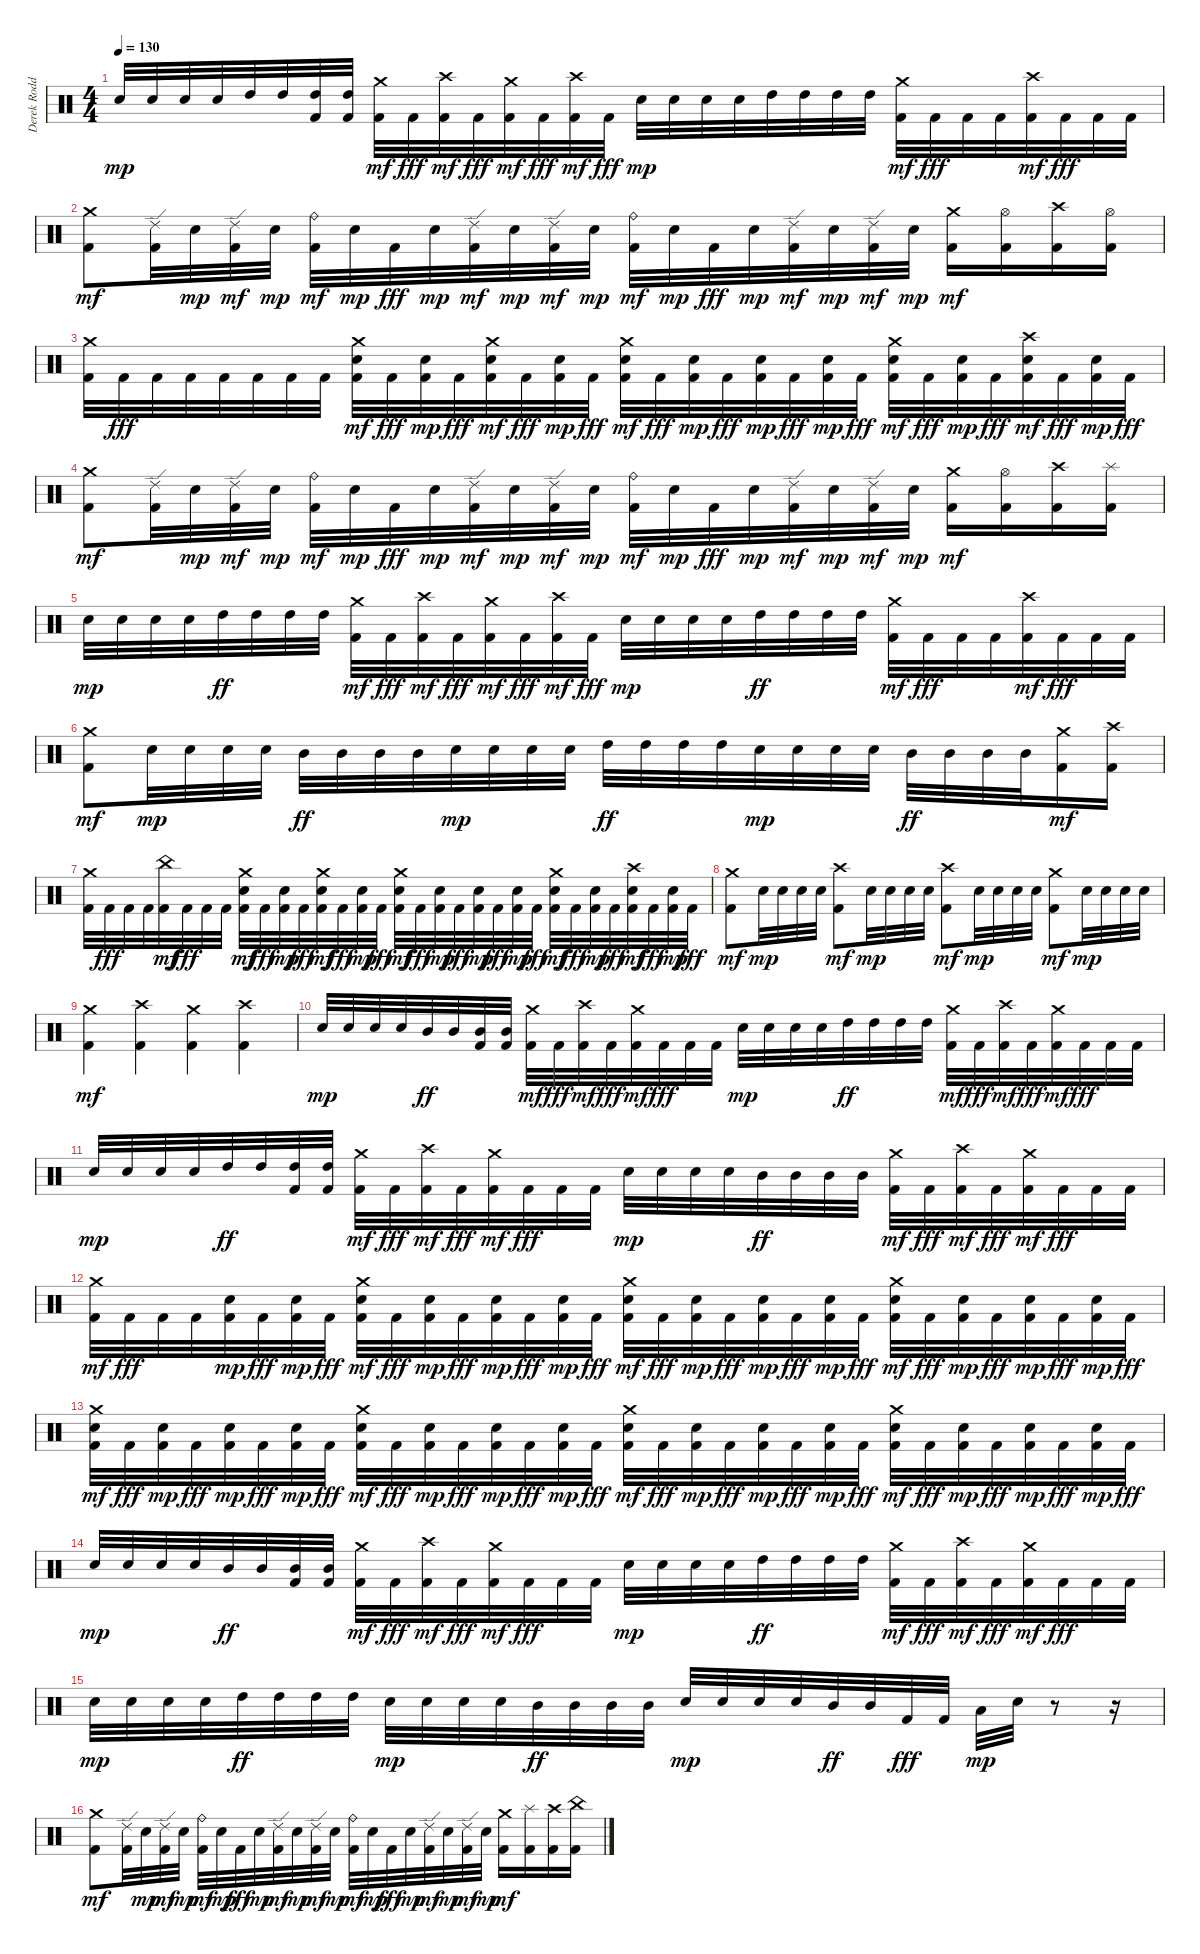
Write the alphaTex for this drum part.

\track ("Derek Roddy" "Derek Rodd") {instrument percussion}
\staff {score}
\articulation defaults
\ts (4 4)
\tempo 130
\clef neutral
\ks c "Electric Snare (hit)".32{dy mp} "Electric Snare (hit)".32 "Electric Snare (hit)".32 "Electric Snare (hit)".32 "High Tom (hit)".32 "High Tom (hit)".32
("Kick (hit) 2" "High Tom (hit)").32 ("Kick (hit) 2" "High Tom (hit)").32 ("Kick (hit) 2" "Crash medium (hit)").32{dy mf} "Kick (hit) 2".32{dy fff} ("Kick (hit) 2" "Crash high (hit)").32{dy mf} "Kick (hit) 2".32{dy fff} ("Kick (hit) 2" "Crash medium (hit)").32{dy mf} "Kick (hit) 2".32{dy fff} ("Kick (hit) 2" "Crash high (hit)").32{dy mf} "Kick (hit) 2".32{dy fff} "Electric Snare (hit)".32{dy mp} "Electric Snare (hit)".32 "Electric Snare (hit)".32 "Electric Snare (hit)".32 "High Tom (hit)".32 "High Tom (hit)".32 "High Tom (hit)".32 "High Tom (hit)".32 ("Kick (hit) 2" "Crash medium (hit)").32{dy mf} "Kick (hit) 2".32{dy fff} "Kick (hit) 2".32 "Kick (hit) 2".32 ("Kick (hit) 2" "Crash high (hit)").32{dy mf} "Kick (hit) 2".32{dy fff} "Kick (hit) 2".32 "Kick (hit) 2".32 |
("Kick (hit) 2" "Crash medium (hit)").8{dy mf} ("Kick (hit) 2" "Ride (edge) 2").32 "Electric Snare (hit)".32{dy mp} ("Kick (hit) 2" "Ride (edge) 2").32{dy mf} "Electric Snare (hit)".32{dy mp} ("Kick (hit) 2" "Ride (bell)").32{dy mf} "Electric Snare (hit)".32{dy mp} "Kick (hit) 2".32{dy fff} "Electric Snare (hit)".32{dy mp} ("Kick (hit) 2" "Ride (edge) 2").32{dy mf} "Electric Snare (hit)".32{dy mp} ("Kick (hit) 2" "Ride (edge) 2").32{dy mf} "Electric Snare (hit)".32{dy mp} ("Kick (hit) 2" "Ride (bell)").32{dy mf} "Electric Snare (hit)".32{dy mp} "Kick (hit) 2".32{dy fff} "Electric Snare (hit)".32{dy mp} ("Kick (hit) 2" "Ride (edge) 2").32{dy mf} "Electric Snare (hit)".32{dy mp} ("Kick (hit) 2" "Ride (edge) 2").32{dy mf} "Electric Snare (hit)".32{dy mp} ("Kick (hit) 2" "Crash medium (hit)").16{dy mf} ("Kick (hit) 2" "Hi-Hat (open)").16 ("Kick (hit) 2" "Crash high (hit)").16 ("Kick (hit) 2" "Hi-Hat (open)").16 |
("Kick (hit) 2" "Crash medium (hit)").32 "Kick (hit) 2".32{dy fff} "Kick (hit) 2".32 "Kick (hit) 2".32 "Kick (hit) 2".32 "Kick (hit) 2".32 "Kick (hit) 2".32 "Kick (hit) 2".32 ("Kick (hit) 2" "Electric Snare (hit)" "Crash medium (hit)").32{dy mf} "Kick (hit) 2".32{dy fff} ("Kick (hit) 2" "Electric Snare (hit)").32{dy mp} "Kick (hit) 2".32{dy fff} ("Kick (hit) 2" "Electric Snare (hit)" "Crash medium (hit)").32{dy mf} "Kick (hit) 2".32{dy fff} ("Kick (hit) 2" "Electric Snare (hit)").32{dy mp} "Kick (hit) 2".32{dy fff} ("Kick (hit) 2" "Electric Snare (hit)" "Crash medium (hit)").32{dy mf} "Kick (hit) 2".32{dy fff} ("Kick (hit) 2" "Electric Snare (hit)").32{dy mp} "Kick (hit) 2".32{dy fff} ("Kick (hit) 2" "Electric Snare (hit)").32{dy mp} "Kick (hit) 2".32{dy fff} ("Kick (hit) 2" "Electric Snare (hit)").32{dy mp} "Kick (hit) 2".32{dy fff} ("Kick (hit) 2" "Electric Snare (hit)" "Crash medium (hit)").32{dy mf} "Kick (hit) 2".32{dy fff} ("Kick (hit) 2" "Electric Snare (hit)").32{dy mp} "Kick (hit) 2".32{dy fff} ("Kick (hit) 2" "Electric Snare (hit)" "Crash high (hit)").32{dy mf} "Kick (hit) 2".32{dy fff} ("Kick (hit) 2" "Electric Snare (hit)").32{dy mp} "Kick (hit) 2".32{dy fff} |
("Kick (hit) 2" "Crash medium (hit)").8{dy mf} ("Kick (hit) 2" "Ride (edge) 2").32 "Electric Snare (hit)".32{dy mp} ("Kick (hit) 2" "Ride (edge) 2").32{dy mf} "Electric Snare (hit)".32{dy mp} ("Kick (hit) 2" "Ride (bell)").32{dy mf} "Electric Snare (hit)".32{dy mp} "Kick (hit) 2".32{dy fff} "Electric Snare (hit)".32{dy mp} ("Kick (hit) 2" "Ride (edge) 2").32{dy mf} "Electric Snare (hit)".32{dy mp} ("Kick (hit) 2" "Ride (edge) 2").32{dy mf} "Electric Snare (hit)".32{dy mp} ("Kick (hit) 2" "Ride (bell)").32{dy mf} "Electric Snare (hit)".32{dy mp} "Kick (hit) 2".32{dy fff} "Electric Snare (hit)".32{dy mp} ("Kick (hit) 2" "Ride (edge) 2").32{dy mf} "Electric Snare (hit)".32{dy mp} ("Kick (hit) 2" "Ride (edge) 2").32{dy mf} "Electric Snare (hit)".32{dy mp} ("Kick (hit) 2" "Crash medium (hit)").16{dy mf} ("Kick (hit) 2" "Hi-Hat (open)").16 ("Kick (hit) 2" "Crash high (hit)").16 ("Kick (hit) 2" "Splash (hit)").16 |
"Electric Snare (hit)".32{dy mp} "Electric Snare (hit)".32 "Electric Snare (hit)".32 "Electric Snare (hit)".32 "High Tom (hit)".32{dy ff} "High Tom (hit)".32 "High Tom (hit)".32 "High Tom (hit)".32 ("Kick (hit) 2" "Crash medium (hit)").32{dy mf} "Kick (hit) 2".32{dy fff} ("Kick (hit) 2" "Crash high (hit)").32{dy mf} "Kick (hit) 2".32{dy fff} ("Kick (hit) 2" "Crash medium (hit)").32{dy mf} "Kick (hit) 2".32{dy fff} ("Kick (hit) 2" "Crash high (hit)").32{dy mf} "Kick (hit) 2".32{dy fff} "Electric Snare (hit)".32{dy mp} "Electric Snare (hit)".32 "Electric Snare (hit)".32 "Electric Snare (hit)".32 "High Tom (hit)".32{dy ff} "High Tom (hit)".32 "High Tom (hit)".32 "High Tom (hit)".32 ("Kick (hit) 2" "Crash medium (hit)").32{dy mf} "Kick (hit) 2".32{dy fff} "Kick (hit) 2".32 "Kick (hit) 2".32 ("Kick (hit) 2" "Crash high (hit)").32{dy mf} "Kick (hit) 2".32{dy fff} "Kick (hit) 2".32 "Kick (hit) 2".32 |
("Kick (hit) 2" "Crash medium (hit)").8{dy mf} "Electric Snare (hit)".32{dy mp} "Electric Snare (hit)".32 "Electric Snare (hit)".32 "Electric Snare (hit)".32 "Mid Tom (hit)".32{dy ff} "Mid Tom (hit)".32 "Mid Tom (hit)".32 "Mid Tom (hit)".32 "Electric Snare (hit)".32{dy mp} "Electric Snare (hit)".32 "Electric Snare (hit)".32 "Electric Snare (hit)".32 "High Tom (hit)".32{dy ff} "High Tom (hit)".32 "High Tom (hit)".32 "High Tom (hit)".32 "Electric Snare (hit)".32{dy mp} "Electric Snare (hit)".32 "Electric Snare (hit)".32 "Electric Snare (hit)".32 "Mid Tom (hit)".32{dy ff} "Mid Tom (hit)".32 "Mid Tom (hit)".32 "Mid Tom (hit)".32 ("Kick (hit) 2" "Crash medium (hit)").16{dy mf} ("Kick (hit) 2" "Crash high (hit)").16 |
("Kick (hit) 2" "Crash medium (hit)").32 "Kick (hit) 2".32{dy fff} "Kick (hit) 2".32 "Kick (hit) 2".32 ("Kick (hit) 2" "China (hit)").32{dy mf} "Kick (hit) 2".32{dy fff} "Kick (hit) 2".32 "Kick (hit) 2".32 ("Kick (hit) 2" "Electric Snare (hit)" "Crash medium (hit)").32{dy mf} "Kick (hit) 2".32{dy fff} ("Kick (hit) 2" "Electric Snare (hit)").32{dy mp} "Kick (hit) 2".32{dy fff} ("Kick (hit) 2" "Electric Snare (hit)" "Crash medium (hit)").32{dy mf} "Kick (hit) 2".32{dy fff} ("Kick (hit) 2" "Electric Snare (hit)").32{dy mp} "Kick (hit) 2".32{dy fff} ("Kick (hit) 2" "Electric Snare (hit)" "Crash medium (hit)").32{dy mf} "Kick (hit) 2".32{dy fff} ("Kick (hit) 2" "Electric Snare (hit)").32{dy mp} "Kick (hit) 2".32{dy fff} ("Kick (hit) 2" "Electric Snare (hit)").32{dy mp} "Kick (hit) 2".32{dy fff} ("Kick (hit) 2" "Electric Snare (hit)").32{dy mp} "Kick (hit) 2".32{dy fff} ("Kick (hit) 2" "Electric Snare (hit)" "Crash medium (hit)").32{dy mf} "Kick (hit) 2".32{dy fff} ("Kick (hit) 2" "Electric Snare (hit)").32{dy mp} "Kick (hit) 2".32{dy fff} ("Kick (hit) 2" "Electric Snare (hit)" "Crash high (hit)").32{dy mf} "Kick (hit) 2".32{dy fff} ("Kick (hit) 2" "Electric Snare (hit)").32{dy mp} "Kick (hit) 2".32{dy fff} |
("Kick (hit) 2" "Crash medium (hit)").8{dy mf} "Electric Snare (hit)".32{dy mp} "Electric Snare (hit)".32 "Electric Snare (hit)".32 "Electric Snare (hit)".32 ("Kick (hit) 2" "Crash high (hit)").8{dy mf} "Electric Snare (hit)".32{dy mp} "Electric Snare (hit)".32 "Electric Snare (hit)".32 "Electric Snare (hit)".32 ("Kick (hit) 2" "Crash high (hit)").8{dy mf} "Electric Snare (hit)".32{dy mp} "Electric Snare (hit)".32 "Electric Snare (hit)".32 "Electric Snare (hit)".32 ("Kick (hit) 2" "Crash medium (hit)").8{dy mf} "Electric Snare (hit)".32{dy mp} "Electric Snare (hit)".32 "Electric Snare (hit)".32 "Electric Snare (hit)".32 |
("Kick (hit) 2" "Crash medium (hit)").4{dy mf} ("Kick (hit) 2" "Crash high (hit)").4 ("Kick (hit) 2" "Crash medium (hit)").4 ("Kick (hit) 2" "Crash high (hit)").4 |
"Electric Snare (hit)".32{dy mp} "Electric Snare (hit)".32 "Electric Snare (hit)".32 "Electric Snare (hit)".32 "Mid Tom (hit)".32{dy ff} "Mid Tom (hit)".32 ("Kick (hit) 2" "Mid Tom (hit)").32 ("Kick (hit) 2" "Mid Tom (hit)").32 ("Kick (hit) 2" "Crash medium (hit)").32{dy mf} "Kick (hit) 2".32{dy fff} ("Kick (hit) 2" "Crash high (hit)").32{dy mf} "Kick (hit) 2".32{dy fff} ("Kick (hit) 2" "Crash medium (hit)").32{dy mf} "Kick (hit) 2".32{dy fff} "Kick (hit) 2".32 "Kick (hit) 2".32 "Electric Snare (hit)".32{dy mp} "Electric Snare (hit)".32 "Electric Snare (hit)".32 "Electric Snare (hit)".32 "High Tom (hit)".32{dy ff} "High Tom (hit)".32 "High Tom (hit)".32 "High Tom (hit)".32 ("Kick (hit) 2" "Crash medium (hit)").32{dy mf} "Kick (hit) 2".32{dy fff} ("Kick (hit) 2" "Crash high (hit)").32{dy mf} "Kick (hit) 2".32{dy fff} ("Kick (hit) 2" "Crash medium (hit)").32{dy mf} "Kick (hit) 2".32{dy fff} "Kick (hit) 2".32 "Kick (hit) 2".32 |
"Electric Snare (hit)".32{dy mp} "Electric Snare (hit)".32 "Electric Snare (hit)".32 "Electric Snare (hit)".32 "High Tom (hit)".32{dy ff} "High Tom (hit)".32 ("Kick (hit) 2" "High Tom (hit)").32 ("Kick (hit) 2" "High Tom (hit)").32 ("Kick (hit) 2" "Crash medium (hit)").32{dy mf} "Kick (hit) 2".32{dy fff} ("Kick (hit) 2" "Crash high (hit)").32{dy mf} "Kick (hit) 2".32{dy fff} ("Kick (hit) 2" "Crash medium (hit)").32{dy mf} "Kick (hit) 2".32{dy fff} "Kick (hit) 2".32 "Kick (hit) 2".32 "Electric Snare (hit)".32{dy mp} "Electric Snare (hit)".32 "Electric Snare (hit)".32 "Electric Snare (hit)".32 "Mid Tom (hit)".32{dy ff} "Mid Tom (hit)".32 "Mid Tom (hit)".32 "Mid Tom (hit)".32 ("Kick (hit) 2" "Crash medium (hit)").32{dy mf} "Kick (hit) 2".32{dy fff} ("Kick (hit) 2" "Crash high (hit)").32{dy mf} "Kick (hit) 2".32{dy fff} ("Kick (hit) 2" "Crash medium (hit)").32{dy mf} "Kick (hit) 2".32{dy fff} "Kick (hit) 2".32 "Kick (hit) 2".32 |
("Kick (hit) 2" "Crash medium (hit)").32{dy mf} "Kick (hit) 2".32{dy fff} "Kick (hit) 2".32 "Kick (hit) 2".32 ("Kick (hit) 2" "Electric Snare (hit)").32{dy mp} "Kick (hit) 2".32{dy fff} ("Kick (hit) 2" "Electric Snare (hit)").32{dy mp} "Kick (hit) 2".32{dy fff} ("Kick (hit) 2" "Electric Snare (hit)" "Crash medium (hit)").32{dy mf} "Kick (hit) 2".32{dy fff} ("Kick (hit) 2" "Electric Snare (hit)").32{dy mp} "Kick (hit) 2".32{dy fff} ("Kick (hit) 2" "Electric Snare (hit)").32{dy mp} "Kick (hit) 2".32{dy fff} ("Kick (hit) 2" "Electric Snare (hit)").32{dy mp} "Kick (hit) 2".32{dy fff} ("Kick (hit) 2" "Electric Snare (hit)" "Crash medium (hit)").32{dy mf} "Kick (hit) 2".32{dy fff} ("Kick (hit) 2" "Electric Snare (hit)").32{dy mp} "Kick (hit) 2".32{dy fff} ("Kick (hit) 2" "Electric Snare (hit)").32{dy mp} "Kick (hit) 2".32{dy fff} ("Kick (hit) 2" "Electric Snare (hit)").32{dy mp} "Kick (hit) 2".32{dy fff} ("Kick (hit) 2" "Electric Snare (hit)" "Crash medium (hit)").32{dy mf} "Kick (hit) 2".32{dy fff} ("Kick (hit) 2" "Electric Snare (hit)").32{dy mp} "Kick (hit) 2".32{dy fff} ("Kick (hit) 2" "Electric Snare (hit)").32{dy mp} "Kick (hit) 2".32{dy fff} ("Kick (hit) 2" "Electric Snare (hit)").32{dy mp} "Kick (hit) 2".32{dy fff} |
("Kick (hit) 2" "Electric Snare (hit)" "Crash medium (hit)").32{dy mf} "Kick (hit) 2".32{dy fff} ("Kick (hit) 2" "Electric Snare (hit)").32{dy mp} "Kick (hit) 2".32{dy fff} ("Kick (hit) 2" "Electric Snare (hit)").32{dy mp} "Kick (hit) 2".32{dy fff} ("Kick (hit) 2" "Electric Snare (hit)").32{dy mp} "Kick (hit) 2".32{dy fff} ("Kick (hit) 2" "Electric Snare (hit)" "Crash medium (hit)").32{dy mf} "Kick (hit) 2".32{dy fff} ("Kick (hit) 2" "Electric Snare (hit)").32{dy mp} "Kick (hit) 2".32{dy fff} ("Kick (hit) 2" "Electric Snare (hit)").32{dy mp} "Kick (hit) 2".32{dy fff} ("Kick (hit) 2" "Electric Snare (hit)").32{dy mp} "Kick (hit) 2".32{dy fff} ("Kick (hit) 2" "Electric Snare (hit)" "Crash medium (hit)").32{dy mf} "Kick (hit) 2".32{dy fff} ("Kick (hit) 2" "Electric Snare (hit)").32{dy mp} "Kick (hit) 2".32{dy fff} ("Kick (hit) 2" "Electric Snare (hit)").32{dy mp} "Kick (hit) 2".32{dy fff} ("Kick (hit) 2" "Electric Snare (hit)").32{dy mp} "Kick (hit) 2".32{dy fff} ("Kick (hit) 2" "Electric Snare (hit)" "Crash medium (hit)").32{dy mf} "Kick (hit) 2".32{dy fff} ("Kick (hit) 2" "Electric Snare (hit)").32{dy mp} "Kick (hit) 2".32{dy fff} ("Kick (hit) 2" "Electric Snare (hit)").32{dy mp} "Kick (hit) 2".32{dy fff} ("Kick (hit) 2" "Electric Snare (hit)").32{dy mp} "Kick (hit) 2".32{dy fff} |
"Electric Snare (hit)".32{dy mp} "Electric Snare (hit)".32 "Electric Snare (hit)".32 "Electric Snare (hit)".32 "Mid Tom (hit)".32{dy ff} "Mid Tom (hit)".32 ("Kick (hit) 2" "Mid Tom (hit)").32 ("Kick (hit) 2" "Mid Tom (hit)").32 ("Kick (hit) 2" "Crash medium (hit)").32{dy mf} "Kick (hit) 2".32{dy fff} ("Kick (hit) 2" "Crash high (hit)").32{dy mf} "Kick (hit) 2".32{dy fff} ("Kick (hit) 2" "Crash medium (hit)").32{dy mf} "Kick (hit) 2".32{dy fff} "Kick (hit) 2".32 "Kick (hit) 2".32 "Electric Snare (hit)".32{dy mp} "Electric Snare (hit)".32 "Electric Snare (hit)".32 "Electric Snare (hit)".32 "High Tom (hit)".32{dy ff} "High Tom (hit)".32 "High Tom (hit)".32 "High Tom (hit)".32 ("Kick (hit) 2" "Crash medium (hit)").32{dy mf} "Kick (hit) 2".32{dy fff} ("Kick (hit) 2" "Crash high (hit)").32{dy mf} "Kick (hit) 2".32{dy fff} ("Kick (hit) 2" "Crash medium (hit)").32{dy mf} "Kick (hit) 2".32{dy fff} "Kick (hit) 2".32 "Kick (hit) 2".32 |
"Electric Snare (hit)".32{dy mp} "Electric Snare (hit)".32 "Electric Snare (hit)".32 "Electric Snare (hit)".32 "High Tom (hit)".32{dy ff} "High Tom (hit)".32 "High Tom (hit)".32 "High Tom (hit)".32 "Electric Snare (hit)".32{dy mp} "Electric Snare (hit)".32 "Electric Snare (hit)".32 "Electric Snare (hit)".32 "Mid Tom (hit)".32{dy ff} "Mid Tom (hit)".32 "Mid Tom (hit)".32 "Mid Tom (hit)".32 "Electric Snare (hit)".32{dy mp} "Electric Snare (hit)".32 "Electric Snare (hit)".32 "Electric Snare (hit)".32 "Mid Tom (hit)".32{dy ff} "Mid Tom (hit)".32 "Kick (hit) 2".32{dy fff} "Kick (hit) 2".32 "Low Floor Tom (hit)".32{dy mp} "Electric Snare (hit)".32 r.8 r.16 |
("Kick (hit) 2" "Crash medium (hit)").8{dy mf} ("Kick (hit) 2" "Ride (edge) 2").32 "Electric Snare (hit)".32{dy mp} ("Kick (hit) 2" "Ride (edge) 2").32{dy mf} "Electric Snare (hit)".32{dy mp} ("Kick (hit) 2" "Ride (bell)").32{dy mf} "Electric Snare (hit)".32{dy mp} "Kick (hit) 2".32{dy fff} "Electric Snare (hit)".32{dy mp} ("Kick (hit) 2" "Ride (edge) 2").32{dy mf} "Electric Snare (hit)".32{dy mp} ("Kick (hit) 2" "Ride (edge) 2").32{dy mf} "Electric Snare (hit)".32{dy mp} ("Kick (hit) 2" "Ride (bell)").32{dy mf} "Electric Snare (hit)".32{dy mp} "Kick (hit) 2".32{dy fff} "Electric Snare (hit)".32{dy mp} ("Kick (hit) 2" "Ride (edge) 2").32{dy mf} "Electric Snare (hit)".32{dy mp} ("Kick (hit) 2" "Ride (edge) 2").32{dy mf} "Electric Snare (hit)".32{dy mp} ("Kick (hit) 2" "Crash medium (hit)").16{dy mf} ("Kick (hit) 2" "Splash (hit)").16 ("Kick (hit) 2" "Crash high (hit)").16 ("Kick (hit) 2" "China (hit)").16
